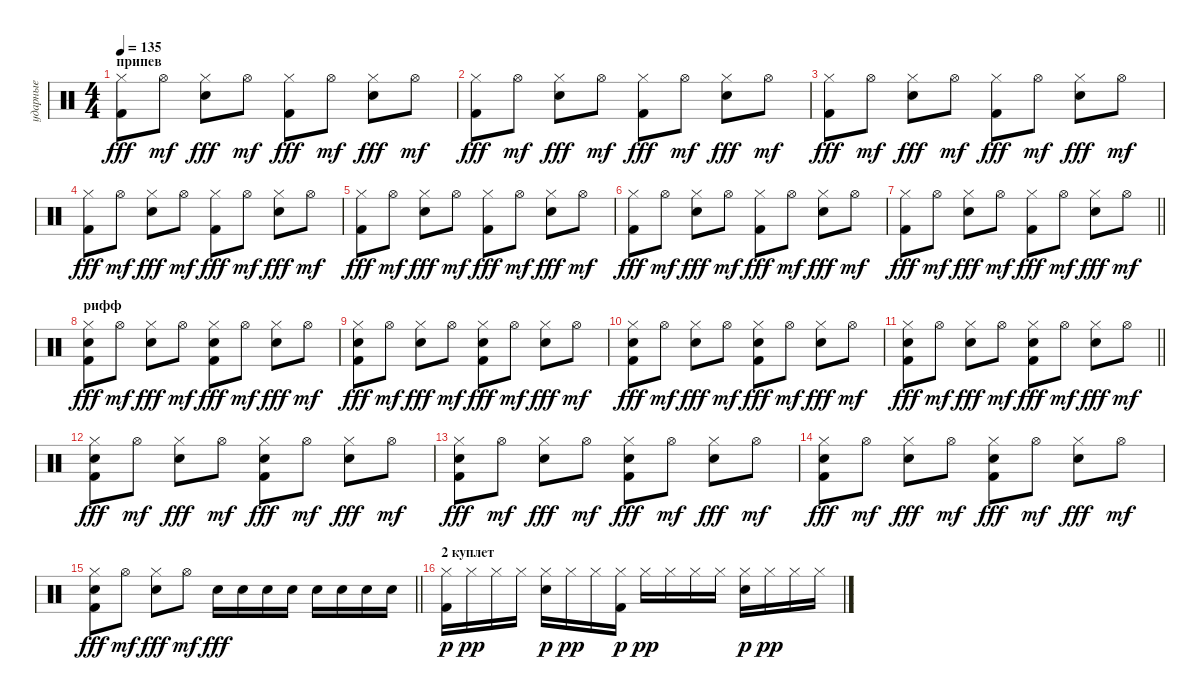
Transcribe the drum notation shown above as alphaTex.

\track ("ударные" "ударные") {instrument percussion}
\staff {score}
\articulation defaults
\ts (4 4)
\section ("" "припев")
\tempo 135
\clef neutral
\ks c
("Hi-Hat (closed)" "Kick (hit) 2").8{dy fff} "Hi-Hat (open)".8{dy mf} ("Hi-Hat (closed)" "Snare (hit) 2").8{dy fff} "Hi-Hat (open)".8{dy mf} ("Hi-Hat (closed)" "Kick (hit) 2").8{dy fff} "Hi-Hat (open)".8{dy mf} ("Hi-Hat (closed)" "Snare (hit) 2").8{dy fff} "Hi-Hat (open)".8{dy mf} |
("Hi-Hat (closed)" "Kick (hit) 2").8{dy fff} "Hi-Hat (open)".8{dy mf} ("Hi-Hat (closed)" "Snare (hit) 2").8{dy fff} "Hi-Hat (open)".8{dy mf} ("Hi-Hat (closed)" "Kick (hit) 2").8{dy fff} "Hi-Hat (open)".8{dy mf} ("Hi-Hat (closed)" "Snare (hit) 2").8{dy fff} "Hi-Hat (open)".8{dy mf} |
("Hi-Hat (closed)" "Kick (hit) 2").8{dy fff} "Hi-Hat (open)".8{dy mf} ("Hi-Hat (closed)" "Snare (hit) 2").8{dy fff} "Hi-Hat (open)".8{dy mf} ("Hi-Hat (closed)" "Kick (hit) 2").8{dy fff} "Hi-Hat (open)".8{dy mf} ("Hi-Hat (closed)" "Snare (hit) 2").8{dy fff} "Hi-Hat (open)".8{dy mf} |
("Hi-Hat (closed)" "Kick (hit) 2").8{dy fff} "Hi-Hat (open)".8{dy mf} ("Hi-Hat (closed)" "Snare (hit) 2").8{dy fff} "Hi-Hat (open)".8{dy mf} ("Hi-Hat (closed)" "Kick (hit) 2").8{dy fff} "Hi-Hat (open)".8{dy mf} ("Hi-Hat (closed)" "Snare (hit) 2").8{dy fff} "Hi-Hat (open)".8{dy mf} |
("Hi-Hat (closed)" "Kick (hit) 2").8{dy fff} "Hi-Hat (open)".8{dy mf} ("Hi-Hat (closed)" "Electric Snare (hit)").8{dy fff} "Hi-Hat (open)".8{dy mf} ("Hi-Hat (closed)" "Kick (hit) 2").8{dy fff} "Hi-Hat (open)".8{dy mf} ("Hi-Hat (closed)" "Snare (hit) 2").8{dy fff} "Hi-Hat (open)".8{dy mf} |
("Hi-Hat (closed)" "Kick (hit) 2").8{dy fff} "Hi-Hat (open)".8{dy mf} ("Hi-Hat (closed)" "Snare (hit) 2").8{dy fff} "Hi-Hat (open)".8{dy mf} ("Hi-Hat (closed)" "Kick (hit) 2").8{dy fff} "Hi-Hat (open)".8{dy mf} ("Hi-Hat (closed)" "Snare (hit) 2").8{dy fff} "Hi-Hat (open)".8{dy mf} |
\barLineRight lightlight
("Hi-Hat (closed)" "Kick (hit) 2").8{dy fff} "Hi-Hat (open)".8{dy mf} ("Hi-Hat (closed)" "Snare (hit) 2").8{dy fff} "Hi-Hat (open)".8{dy mf} ("Hi-Hat (closed)" "Kick (hit) 2").8{dy fff} "Hi-Hat (open)".8{dy mf} ("Hi-Hat (closed)" "Snare (hit) 2").8{dy fff} "Hi-Hat (open)".8{dy mf} |
\section ("" "рифф")
("Hi-Hat (closed)" "Electric Snare (hit)" "Kick (hit) 2").8{dy fff} "Hi-Hat (open)".8{dy mf} ("Hi-Hat (closed)" "Snare (hit) 2").8{dy fff} "Hi-Hat (open)".8{dy mf} ("Hi-Hat (closed)" "Electric Snare (hit)" "Kick (hit) 2").8{dy fff} "Hi-Hat (open)".8{dy mf} ("Hi-Hat (closed)" "Snare (hit) 2").8{dy fff} "Hi-Hat (open)".8{dy mf} |
("Hi-Hat (closed)" "Electric Snare (hit)" "Kick (hit) 2").8{dy fff} "Hi-Hat (open)".8{dy mf} ("Hi-Hat (closed)" "Snare (hit) 2").8{dy fff} "Hi-Hat (open)".8{dy mf} ("Hi-Hat (closed)" "Electric Snare (hit)" "Kick (hit) 2").8{dy fff} "Hi-Hat (open)".8{dy mf} ("Hi-Hat (closed)" "Snare (hit) 2").8{dy fff} "Hi-Hat (open)".8{dy mf} |
("Hi-Hat (closed)" "Electric Snare (hit)" "Kick (hit) 2").8{dy fff} "Hi-Hat (open)".8{dy mf} ("Hi-Hat (closed)" "Snare (hit) 2").8{dy fff} "Hi-Hat (open)".8{dy mf} ("Hi-Hat (closed)" "Electric Snare (hit)" "Kick (hit) 2").8{dy fff} "Hi-Hat (open)".8{dy mf} ("Hi-Hat (closed)" "Snare (hit) 2").8{dy fff} "Hi-Hat (open)".8{dy mf} |
\barLineRight lightlight
("Hi-Hat (closed)" "Electric Snare (hit)" "Kick (hit) 2").8{dy fff} "Hi-Hat (open)".8{dy mf} ("Hi-Hat (closed)" "Snare (hit) 2").8{dy fff} "Hi-Hat (open)".8{dy mf} ("Hi-Hat (closed)" "Electric Snare (hit)" "Kick (hit) 2").8{dy fff} "Hi-Hat (open)".8{dy mf} ("Hi-Hat (closed)" "Snare (hit) 2").8{dy fff} "Hi-Hat (open)".8{dy mf} |
("Hi-Hat (closed)" "Electric Snare (hit)" "Kick (hit) 2").8{dy fff} "Hi-Hat (open)".8{dy mf} ("Hi-Hat (closed)" "Snare (hit) 2").8{dy fff} "Hi-Hat (open)".8{dy mf} ("Hi-Hat (closed)" "Electric Snare (hit)" "Kick (hit) 2").8{dy fff} "Hi-Hat (open)".8{dy mf} ("Hi-Hat (closed)" "Snare (hit) 2").8{dy fff} "Hi-Hat (open)".8{dy mf} |
("Hi-Hat (closed)" "Electric Snare (hit)" "Kick (hit) 2").8{dy fff} "Hi-Hat (open)".8{dy mf} ("Hi-Hat (closed)" "Snare (hit) 2").8{dy fff} "Hi-Hat (open)".8{dy mf} ("Hi-Hat (closed)" "Electric Snare (hit)" "Kick (hit) 2").8{dy fff} "Hi-Hat (open)".8{dy mf} ("Hi-Hat (closed)" "Snare (hit) 2").8{dy fff} "Hi-Hat (open)".8{dy mf} |
("Hi-Hat (closed)" "Electric Snare (hit)" "Kick (hit) 2").8{dy fff} "Hi-Hat (open)".8{dy mf} ("Hi-Hat (closed)" "Snare (hit) 2").8{dy fff} "Hi-Hat (open)".8{dy mf} ("Hi-Hat (closed)" "Electric Snare (hit)" "Kick (hit) 2").8{dy fff} "Hi-Hat (open)".8{dy mf} ("Hi-Hat (closed)" "Snare (hit) 2").8{dy fff} "Hi-Hat (open)".8{dy mf} |
\barLineRight lightlight
("Hi-Hat (closed)" "Electric Snare (hit)" "Kick (hit) 2").8{dy fff} "Hi-Hat (open)".8{dy mf} ("Hi-Hat (closed)" "Snare (hit) 2").8{dy fff} "Hi-Hat (open)".8{dy mf} "Snare (hit) 2".16{dy fff} "Snare (hit) 2".16 "Snare (hit) 2".16 "Snare (hit) 2".16 "Snare (hit) 2".16 "Snare (hit) 2".16 "Snare (hit) 2".16 "Snare (hit) 2".16 |
\section ("" "2 куплет")
("Hi-Hat (closed)" "Kick (hit) 2").16{dy p} "Hi-Hat (closed)".16{dy pp} "Hi-Hat (closed)".16 "Hi-Hat (closed)".16 ("Hi-Hat (closed)" "Electric Snare (hit)").16{dy p} "Hi-Hat (closed)".16{dy pp} "Hi-Hat (closed)".16 ("Hi-Hat (closed)" "Kick (hit) 2").16{dy p} "Hi-Hat (closed)".16{dy pp} "Hi-Hat (closed)".16 "Hi-Hat (closed)".16 "Hi-Hat (closed)".16 ("Hi-Hat (closed)" "Electric Snare (hit)").16{dy p} "Hi-Hat (closed)".16{dy pp} "Hi-Hat (closed)".16 "Hi-Hat (closed)".16
